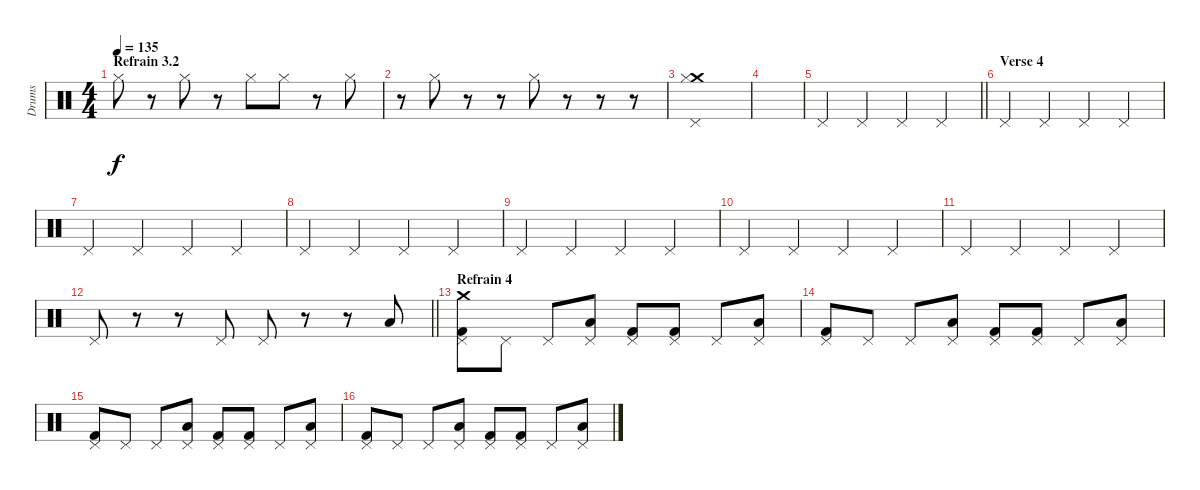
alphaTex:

\track ("Drums" "Drums") {instrument percussion}
\staff {score}
\articulation defaults
\ts (4 4)
\section ("" "Refrain 3.2")
\tempo 135
\clef neutral
\ks c "Hi-Hat (closed)".8{dy f}
r.8 "Hi-Hat (closed)".8 r.8 "Hi-Hat (closed)".8 "Hi-Hat (closed)".8 r.8 "Hi-Hat (closed)".8 |
r.8 "Hi-Hat (closed)".8 r.8 r.8 "Hi-Hat (closed)".8 r.8 r.8 r.8 |
("Crash medium (hit)" "Pedal Hi-Hat (hit)" "Hi-Hat (closed)").1 |
|
\barLineRight lightlight "Pedal Hi-Hat (hit)".4 "Pedal Hi-Hat (hit)".4 "Pedal Hi-Hat (hit)".4 "Pedal Hi-Hat (hit)".4
|
\section ("" "Verse 4")
"Pedal Hi-Hat (hit)".4 "Pedal Hi-Hat (hit)".4 "Pedal Hi-Hat (hit)".4 "Pedal Hi-Hat (hit)".4 |
"Pedal Hi-Hat (hit)".4 "Pedal Hi-Hat (hit)".4 "Pedal Hi-Hat (hit)".4 "Pedal Hi-Hat (hit)".4 |
"Pedal Hi-Hat (hit)".4 "Pedal Hi-Hat (hit)".4 "Pedal Hi-Hat (hit)".4 "Pedal Hi-Hat (hit)".4 |
"Pedal Hi-Hat (hit)".4 "Pedal Hi-Hat (hit)".4 "Pedal Hi-Hat (hit)".4 "Pedal Hi-Hat (hit)".4 |
"Pedal Hi-Hat (hit)".4 "Pedal Hi-Hat (hit)".4 "Pedal Hi-Hat (hit)".4 "Pedal Hi-Hat (hit)".4 |
"Pedal Hi-Hat (hit)".4 "Pedal Hi-Hat (hit)".4 "Pedal Hi-Hat (hit)".4 "Pedal Hi-Hat (hit)".4 |
\barLineRight lightlight "Pedal Hi-Hat (hit)".8
r.8 r.8 "Pedal Hi-Hat (hit)".8 "Pedal Hi-Hat (hit)".8 r.8 r.8 "Low Tom (hit)".8 |
\section ("" "Refrain 4")
("Kick (hit) 2" "Crash medium (hit)" "Pedal Hi-Hat (hit)").8 "Pedal Hi-Hat (hit)".8 "Pedal Hi-Hat (hit)".8 ("Low Tom (hit)" "Pedal Hi-Hat (hit)").8 ("Kick (hit) 2" "Pedal Hi-Hat (hit)").8 ("Kick (hit) 2" "Pedal Hi-Hat (hit)").8 "Pedal Hi-Hat (hit)".8 ("Low Tom (hit)" "Pedal Hi-Hat (hit)").8 |
("Kick (hit) 2" "Pedal Hi-Hat (hit)").8 "Pedal Hi-Hat (hit)".8 "Pedal Hi-Hat (hit)".8 ("Low Tom (hit)" "Pedal Hi-Hat (hit)").8 ("Kick (hit) 2" "Pedal Hi-Hat (hit)").8 ("Kick (hit) 2" "Pedal Hi-Hat (hit)").8 "Pedal Hi-Hat (hit)".8 ("Low Tom (hit)" "Pedal Hi-Hat (hit)").8 |
("Kick (hit) 2" "Pedal Hi-Hat (hit)").8 "Pedal Hi-Hat (hit)".8 "Pedal Hi-Hat (hit)".8 ("Low Tom (hit)" "Pedal Hi-Hat (hit)").8 ("Kick (hit) 2" "Pedal Hi-Hat (hit)").8 ("Kick (hit) 2" "Pedal Hi-Hat (hit)").8 "Pedal Hi-Hat (hit)".8 ("Low Tom (hit)" "Pedal Hi-Hat (hit)").8 |
("Kick (hit) 2" "Pedal Hi-Hat (hit)").8 "Pedal Hi-Hat (hit)".8 "Pedal Hi-Hat (hit)".8 ("Low Tom (hit)" "Pedal Hi-Hat (hit)").8 ("Kick (hit) 2" "Pedal Hi-Hat (hit)").8 ("Kick (hit) 2" "Pedal Hi-Hat (hit)").8 "Pedal Hi-Hat (hit)".8 ("Low Tom (hit)" "Pedal Hi-Hat (hit)").8
